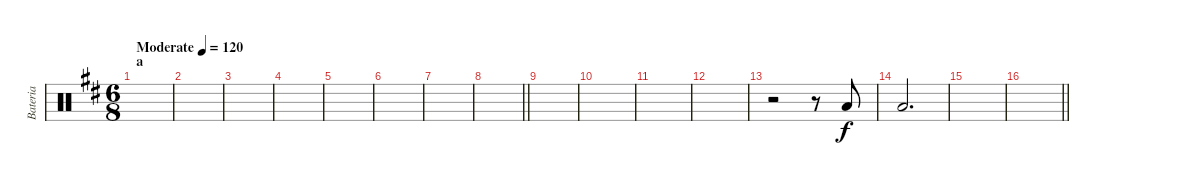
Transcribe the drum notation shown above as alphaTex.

\track ("Bateria" "Bateria") {instrument percussion}
\staff {score}
\articulation defaults
\ts (6 8)
\section ("" "a")
\tempo (120 "Moderate")
\clef neutral
\ks d
|
|
|
|
|
|
|
\barLineRight lightlight
|
|
|
|
|
r.2 r.8 "Low Floor Tom (hit)".8 |
"Low Floor Tom (hit)".2{d} |
|
\barLineRight lightlight
